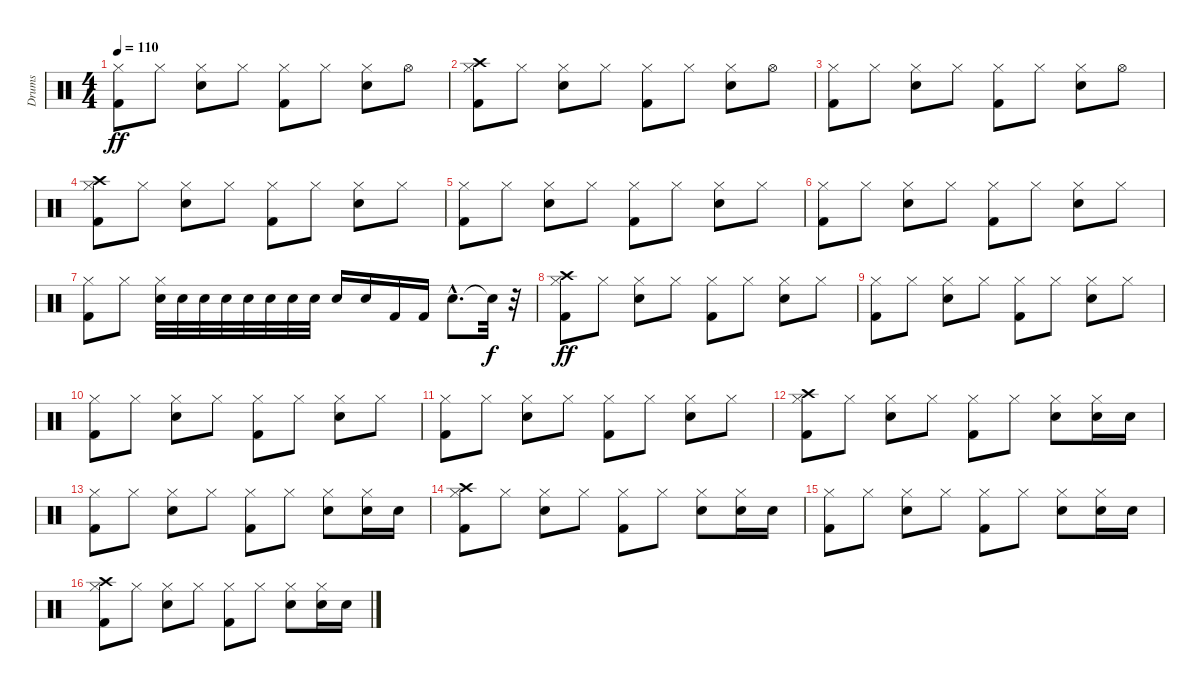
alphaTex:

\track ("Drums" "Drums") {instrument percussion}
\staff {score}
\articulation defaults
\ts (4 4)
\tempo 110
\clef neutral
\ks c
("Kick (hit) 2" "Hi-Hat (closed)").8{dy ff} "Hi-Hat (closed)".8 ("Snare (hit) 2" "Hi-Hat (closed)").8 "Hi-Hat (closed)".8 ("Kick (hit) 2" "Hi-Hat (closed)").8 "Hi-Hat (closed)".8 ("Snare (hit) 2" "Hi-Hat (closed)").8 "Hi-Hat (open)".8 |
("Kick (hit) 2" "Hi-Hat (closed)" "Crash high (hit)").8 "Hi-Hat (closed)".8 ("Snare (hit) 2" "Hi-Hat (closed)").8 "Hi-Hat (closed)".8 ("Kick (hit) 2" "Hi-Hat (closed)").8 "Hi-Hat (closed)".8 ("Snare (hit) 2" "Hi-Hat (closed)").8 "Hi-Hat (open)".8 |
("Kick (hit) 2" "Hi-Hat (closed)").8 "Hi-Hat (closed)".8 ("Snare (hit) 2" "Hi-Hat (closed)").8 "Hi-Hat (closed)".8 ("Kick (hit) 2" "Hi-Hat (closed)").8 "Hi-Hat (closed)".8 ("Snare (hit) 2" "Hi-Hat (closed)").8 "Hi-Hat (open)".8 |
("Kick (hit) 2" "Hi-Hat (closed)" "Crash high (hit)").8 "Hi-Hat (closed)".8 ("Snare (hit) 2" "Hi-Hat (closed)").8 "Hi-Hat (closed)".8 ("Kick (hit) 2" "Hi-Hat (closed)").8 "Hi-Hat (closed)".8 ("Snare (hit) 2" "Hi-Hat (closed)").8 "Hi-Hat (closed)".8 |
("Kick (hit) 2" "Hi-Hat (closed)").8 "Hi-Hat (closed)".8 ("Snare (hit) 2" "Hi-Hat (closed)").8 "Hi-Hat (closed)".8 ("Kick (hit) 2" "Hi-Hat (closed)").8 "Hi-Hat (closed)".8 ("Snare (hit) 2" "Hi-Hat (closed)").8 "Hi-Hat (closed)".8 |
("Kick (hit) 2" "Hi-Hat (closed)").8 "Hi-Hat (closed)".8 ("Snare (hit) 2" "Hi-Hat (closed)").8 "Hi-Hat (closed)".8 ("Kick (hit) 2" "Hi-Hat (closed)").8 "Hi-Hat (closed)".8 ("Snare (hit) 2" "Hi-Hat (closed)").8 "Hi-Hat (closed)".8 |
("Kick (hit) 2" "Hi-Hat (closed)").8 "Hi-Hat (closed)".8 ("Snare (hit) 2" "Hi-Hat (closed)").32 "Snare (hit) 2".32 "Snare (hit) 2".32 "Snare (hit) 2".32 "Snare (hit) 2".32 "Snare (hit) 2".32 "Snare (hit) 2".32 "Snare (hit) 2".32 "Snare (hit) 2".16 "Snare (hit) 2".16 "Kick (hit) 2".16 "Kick (hit) 2".16 "Snare (hit) 2"{hac}.8{d} "Snare (hit)"{t}.32{dy f} r.32 |
("Kick (hit) 2" "Hi-Hat (closed)" "Crash high (hit)").8{dy ff} "Hi-Hat (closed)".8 ("Snare (hit) 2" "Hi-Hat (closed)").8 "Hi-Hat (closed)".8 ("Kick (hit) 2" "Hi-Hat (closed)").8 "Hi-Hat (closed)".8 ("Snare (hit) 2" "Hi-Hat (closed)").8 "Hi-Hat (closed)".8 |
("Kick (hit) 2" "Hi-Hat (closed)").8 "Hi-Hat (closed)".8 ("Snare (hit) 2" "Hi-Hat (closed)").8 "Hi-Hat (closed)".8 ("Kick (hit) 2" "Hi-Hat (closed)").8 "Hi-Hat (closed)".8 ("Snare (hit) 2" "Hi-Hat (closed)").8 "Hi-Hat (closed)".8 |
("Kick (hit) 2" "Hi-Hat (closed)").8 "Hi-Hat (closed)".8 ("Snare (hit) 2" "Hi-Hat (closed)").8 "Hi-Hat (closed)".8 ("Kick (hit) 2" "Hi-Hat (closed)").8 "Hi-Hat (closed)".8 ("Snare (hit) 2" "Hi-Hat (closed)").8 "Hi-Hat (closed)".8 |
("Kick (hit) 2" "Hi-Hat (closed)").8 "Hi-Hat (closed)".8 ("Snare (hit) 2" "Hi-Hat (closed)").8 "Hi-Hat (closed)".8 ("Kick (hit) 2" "Hi-Hat (closed)").8 "Hi-Hat (closed)".8 ("Snare (hit) 2" "Hi-Hat (closed)").8 "Hi-Hat (closed)".8 |
("Kick (hit) 2" "Hi-Hat (closed)" "Crash high (hit)").8 "Hi-Hat (closed)".8 ("Snare (hit) 2" "Hi-Hat (closed)").8 "Hi-Hat (closed)".8 ("Kick (hit) 2" "Hi-Hat (closed)").8 "Hi-Hat (closed)".8 ("Snare (hit) 2" "Hi-Hat (closed)").8 ("Snare (hit) 2" "Hi-Hat (closed)").16 "Snare (hit) 2".16 |
("Kick (hit) 2" "Hi-Hat (closed)").8 "Hi-Hat (closed)".8 ("Snare (hit) 2" "Hi-Hat (closed)").8 "Hi-Hat (closed)".8 ("Kick (hit) 2" "Hi-Hat (closed)").8 "Hi-Hat (closed)".8 ("Snare (hit) 2" "Hi-Hat (closed)").8 ("Snare (hit) 2" "Hi-Hat (closed)").16 "Snare (hit) 2".16 |
("Kick (hit) 2" "Hi-Hat (closed)" "Crash high (hit)").8 "Hi-Hat (closed)".8 ("Snare (hit) 2" "Hi-Hat (closed)").8 "Hi-Hat (closed)".8 ("Kick (hit) 2" "Hi-Hat (closed)").8 "Hi-Hat (closed)".8 ("Snare (hit) 2" "Hi-Hat (closed)").8 ("Snare (hit) 2" "Hi-Hat (closed)").16 "Snare (hit) 2".16 |
("Kick (hit) 2" "Hi-Hat (closed)").8 "Hi-Hat (closed)".8 ("Snare (hit) 2" "Hi-Hat (closed)").8 "Hi-Hat (closed)".8 ("Kick (hit) 2" "Hi-Hat (closed)").8 "Hi-Hat (closed)".8 ("Snare (hit) 2" "Hi-Hat (closed)").8 ("Snare (hit) 2" "Hi-Hat (closed)").16 "Snare (hit) 2".16 |
("Kick (hit) 2" "Hi-Hat (closed)" "Crash high (hit)").8 "Hi-Hat (closed)".8 ("Snare (hit) 2" "Hi-Hat (closed)").8 "Hi-Hat (closed)".8 ("Kick (hit) 2" "Hi-Hat (closed)").8 "Hi-Hat (closed)".8 ("Snare (hit) 2" "Hi-Hat (closed)").8 ("Snare (hit) 2" "Hi-Hat (closed)").16 "Snare (hit) 2".16
